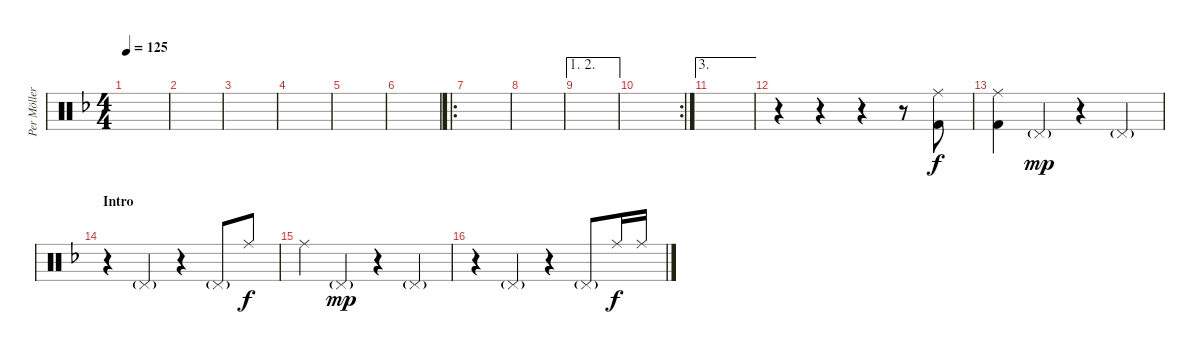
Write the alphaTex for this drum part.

\track ("Per Möller Jensen" "Per Möller") {instrument percussion}
\staff {score}
\articulation defaults
\ts (4 4)
\tempo 125
\clef neutral
\ks dminor
|
|
|
|
|
|
\ro
|
|
\ae (1 2)
|
\rc 2
|
\ae 3
|
r.4 r.4 r.4 r.8 ("Ride (middle)" "Kick (hit) 2").8 |
("Ride (middle)" "Kick (hit) 2").4 "Pedal Hi-Hat (hit)"{g}.4{dy mp} r.4 "Pedal Hi-Hat (hit)"{g}.4 |
\section ("" "Intro")
r.4 "Pedal Hi-Hat (hit)"{g}.4 r.4 "Pedal Hi-Hat (hit)"{g}.8 "Ride (middle)".8{dy f} |
"Ride (middle)".4 "Pedal Hi-Hat (hit)"{g}.4{dy mp} r.4 "Pedal Hi-Hat (hit)"{g}.4 |
r.4 "Pedal Hi-Hat (hit)"{g}.4 r.4 "Pedal Hi-Hat (hit)"{g}.8 "Ride (middle)".16{dy f} "Ride (middle)".16
